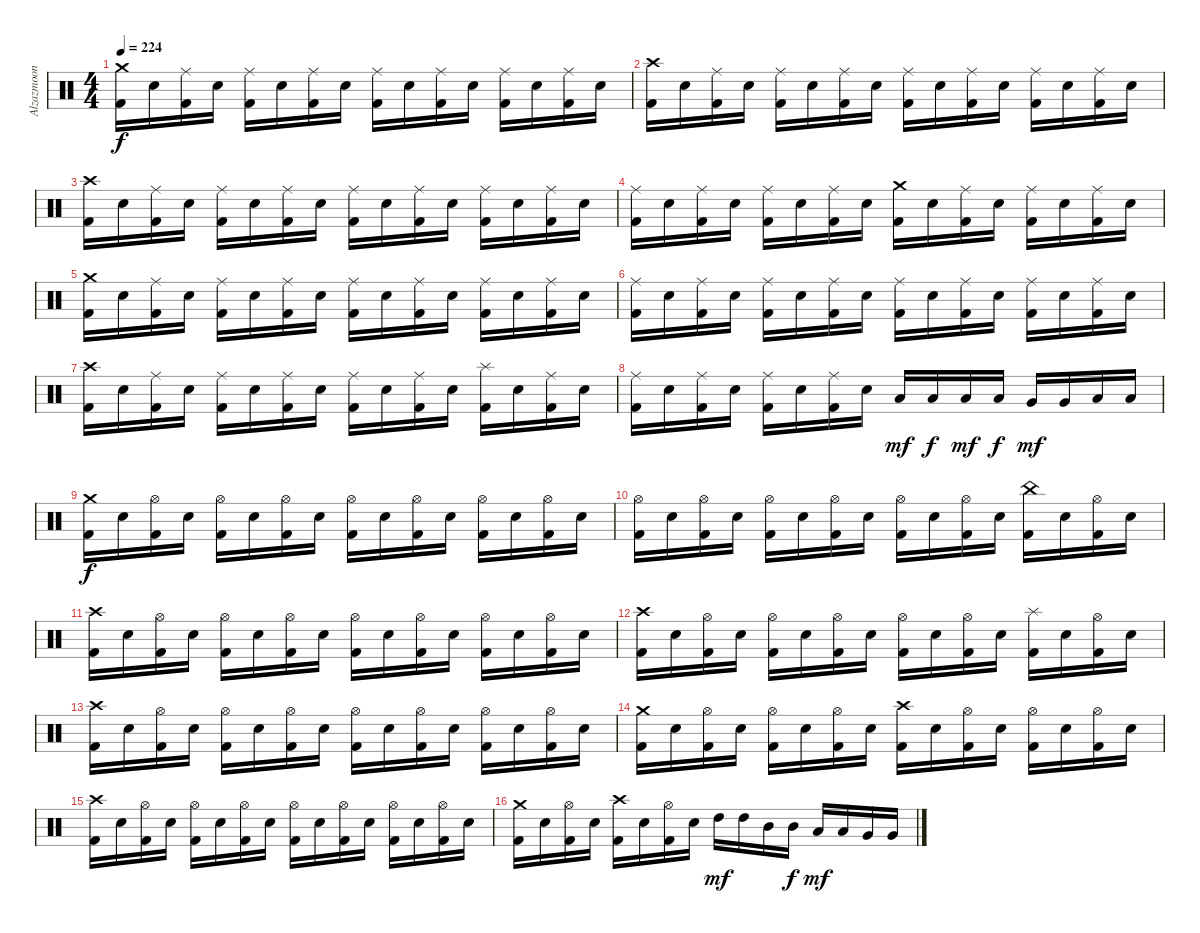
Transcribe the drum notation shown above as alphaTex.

\track ("Alzazmoon" "Alzazmoon") {instrument percussion}
\staff {score}
\articulation defaults
\ts (4 4)
\tempo 224
\clef neutral
\ks c
("Crash medium (hit)" "Kick (hit) 2").16{dy f} "Snare (hit) 2".16 ("Ride (middle)" "Kick (hit) 2").16 "Snare (hit) 2".16 ("Ride (middle)" "Kick (hit) 2").16 "Snare (hit) 2".16 ("Ride (middle)" "Kick (hit) 2").16 "Snare (hit) 2".16 ("Ride (middle)" "Kick (hit) 2").16 "Snare (hit) 2".16 ("Ride (middle)" "Kick (hit) 2").16 "Snare (hit) 2".16 ("Ride (middle)" "Kick (hit) 2").16 "Snare (hit) 2".16 ("Ride (middle)" "Kick (hit) 2").16 "Snare (hit) 2".16 |
("Crash high (hit)" "Kick (hit) 2").16 "Snare (hit) 2".16 ("Ride (middle)" "Kick (hit) 2").16 "Snare (hit) 2".16 ("Ride (middle)" "Kick (hit) 2").16 "Snare (hit) 2".16 ("Ride (middle)" "Kick (hit) 2").16 "Snare (hit) 2".16 ("Ride (middle)" "Kick (hit) 2").16 "Snare (hit) 2".16 ("Ride (middle)" "Kick (hit) 2").16 "Snare (hit) 2".16 ("Ride (middle)" "Kick (hit) 2").16 "Snare (hit) 2".16 ("Ride (middle)" "Kick (hit) 2").16 "Snare (hit) 2".16 |
("Crash high (hit)" "Kick (hit) 2").16 "Snare (hit) 2".16 ("Ride (middle)" "Kick (hit) 2").16 "Snare (hit) 2".16 ("Ride (middle)" "Kick (hit) 2").16 "Snare (hit) 2".16 ("Ride (middle)" "Kick (hit) 2").16 "Snare (hit) 2".16 ("Ride (middle)" "Kick (hit) 2").16 "Snare (hit) 2".16 ("Ride (middle)" "Kick (hit) 2").16 "Snare (hit) 2".16 ("Ride (middle)" "Kick (hit) 2").16 "Snare (hit) 2".16 ("Ride (middle)" "Kick (hit) 2").16 "Snare (hit) 2".16 |
("Ride (middle)" "Kick (hit) 2").16 "Snare (hit) 2".16 ("Ride (middle)" "Kick (hit) 2").16 "Snare (hit) 2".16 ("Ride (middle)" "Kick (hit) 2").16 "Snare (hit) 2".16 ("Ride (middle)" "Kick (hit) 2").16 "Snare (hit) 2".16 ("Crash medium (hit)" "Kick (hit) 2").16 "Snare (hit) 2".16 ("Ride (middle)" "Kick (hit) 2").16 "Snare (hit) 2".16 ("Ride (middle)" "Kick (hit) 2").16 "Snare (hit) 2".16 ("Ride (middle)" "Kick (hit) 2").16 "Snare (hit) 2".16 |
("Crash medium (hit)" "Kick (hit) 2").16 "Snare (hit) 2".16 ("Ride (middle)" "Kick (hit) 2").16 "Snare (hit) 2".16 ("Ride (middle)" "Kick (hit) 2").16 "Snare (hit) 2".16 ("Ride (middle)" "Kick (hit) 2").16 "Snare (hit) 2".16 ("Ride (middle)" "Kick (hit) 2").16 "Snare (hit) 2".16 ("Ride (middle)" "Kick (hit) 2").16 "Snare (hit) 2".16 ("Ride (middle)" "Kick (hit) 2").16 "Snare (hit) 2".16 ("Ride (middle)" "Kick (hit) 2").16 "Snare (hit) 2".16 |
("Ride (middle)" "Kick (hit) 2").16 "Snare (hit) 2".16 ("Ride (middle)" "Kick (hit) 2").16 "Snare (hit) 2".16 ("Ride (middle)" "Kick (hit) 2").16 "Snare (hit) 2".16 ("Ride (middle)" "Kick (hit) 2").16 "Snare (hit) 2".16 ("Ride (middle)" "Kick (hit) 2").16 "Snare (hit) 2".16 ("Ride (middle)" "Kick (hit) 2").16 "Snare (hit) 2".16 ("Ride (middle)" "Kick (hit) 2").16 "Snare (hit) 2".16 ("Ride (middle)" "Kick (hit) 2").16 "Snare (hit) 2".16 |
("Crash high (hit)" "Kick (hit) 2").16 "Snare (hit) 2".16 ("Ride (middle)" "Kick (hit) 2").16 "Snare (hit) 2".16 ("Ride (middle)" "Kick (hit) 2").16 "Snare (hit) 2".16 ("Ride (middle)" "Kick (hit) 2").16 "Snare (hit) 2".16 ("Ride (middle)" "Kick (hit) 2").16 "Snare (hit) 2".16 ("Ride (middle)" "Kick (hit) 2").16 "Snare (hit) 2".16 ("Splash (hit)" "Kick (hit) 2").16 "Snare (hit) 2".16 ("Ride (middle)" "Kick (hit) 2").16 "Snare (hit) 2".16 |
("Ride (middle)" "Kick (hit) 2").16 "Snare (hit) 2".16 ("Ride (middle)" "Kick (hit) 2").16 "Snare (hit) 2".16 ("Ride (middle)" "Kick (hit) 2").16 "Snare (hit) 2".16 ("Ride (middle)" "Kick (hit) 2").16 "Snare (hit) 2".16 "Low Tom (hit)".16{dy mf} "Low Tom (hit)".16{dy f} "Low Tom (hit)".16{dy mf} "Low Tom (hit)".16{dy f} "Very Low Tom (hit)".16{dy mf} "Very Low Tom (hit)".16 "Low Floor Tom (hit)".16 "Low Floor Tom (hit)".16 |
("Crash medium (hit)" "Kick (hit) 2").16{dy f} "Snare (hit) 2".16 ("Hi-Hat (open)" "Kick (hit) 2").16 "Snare (hit) 2".16 ("Hi-Hat (open)" "Kick (hit) 2").16 "Snare (hit) 2".16 ("Hi-Hat (open)" "Kick (hit) 2").16 "Snare (hit) 2".16 ("Hi-Hat (open)" "Kick (hit) 2").16 "Snare (hit) 2".16 ("Hi-Hat (open)" "Kick (hit) 2").16 "Snare (hit) 2".16 ("Hi-Hat (open)" "Kick (hit) 2").16 "Snare (hit) 2".16 ("Hi-Hat (open)" "Kick (hit) 2").16 "Snare (hit) 2".16 |
("Hi-Hat (open)" "Kick (hit) 2").16 "Snare (hit) 2".16 ("Hi-Hat (open)" "Kick (hit) 2").16 "Snare (hit) 2".16 ("Hi-Hat (open)" "Kick (hit) 2").16 "Snare (hit) 2".16 ("Hi-Hat (open)" "Kick (hit) 2").16 "Snare (hit) 2".16 ("Hi-Hat (open)" "Kick (hit) 2").16 "Snare (hit) 2".16 ("Hi-Hat (open)" "Kick (hit) 2").16 "Snare (hit) 2".16 ("China (hit)" "Kick (hit) 2").16 "Snare (hit) 2".16 ("Hi-Hat (open)" "Kick (hit) 2").16 "Snare (hit) 2".16 |
("Crash high (hit)" "Kick (hit) 2").16 "Snare (hit) 2".16 ("Hi-Hat (open)" "Kick (hit) 2").16 "Snare (hit) 2".16 ("Hi-Hat (open)" "Kick (hit) 2").16 "Snare (hit) 2".16 ("Hi-Hat (open)" "Kick (hit) 2").16 "Snare (hit) 2".16 ("Hi-Hat (open)" "Kick (hit) 2").16 "Snare (hit) 2".16 ("Hi-Hat (open)" "Kick (hit) 2").16 "Snare (hit) 2".16 ("Hi-Hat (open)" "Kick (hit) 2").16 "Snare (hit) 2".16 ("Hi-Hat (open)" "Kick (hit) 2").16 "Snare (hit) 2".16 |
("Crash high (hit)" "Kick (hit) 2").16 "Snare (hit) 2".16 ("Hi-Hat (open)" "Kick (hit) 2").16 "Snare (hit) 2".16 ("Hi-Hat (open)" "Kick (hit) 2").16 "Snare (hit) 2".16 ("Hi-Hat (open)" "Kick (hit) 2").16 "Snare (hit) 2".16 ("Hi-Hat (open)" "Kick (hit) 2").16 "Snare (hit) 2".16 ("Hi-Hat (open)" "Kick (hit) 2").16 "Snare (hit) 2".16 ("Splash (hit)" "Kick (hit) 2").16 "Snare (hit) 2".16 ("Hi-Hat (open)" "Kick (hit) 2").16 "Snare (hit) 2".16 |
("Crash high (hit)" "Kick (hit) 2").16 "Snare (hit) 2".16 ("Hi-Hat (open)" "Kick (hit) 2").16 "Snare (hit) 2".16 ("Hi-Hat (open)" "Kick (hit) 2").16 "Snare (hit) 2".16 ("Hi-Hat (open)" "Kick (hit) 2").16 "Snare (hit) 2".16 ("Hi-Hat (open)" "Kick (hit) 2").16 "Snare (hit) 2".16 ("Hi-Hat (open)" "Kick (hit) 2").16 "Snare (hit) 2".16 ("Hi-Hat (open)" "Kick (hit) 2").16 "Snare (hit) 2".16 ("Hi-Hat (open)" "Kick (hit) 2").16 "Snare (hit) 2".16 |
("Crash medium (hit)" "Kick (hit) 2").16 "Snare (hit) 2".16 ("Hi-Hat (open)" "Kick (hit) 2").16 "Snare (hit) 2".16 ("Hi-Hat (open)" "Kick (hit) 2").16 "Snare (hit) 2".16 ("Hi-Hat (open)" "Kick (hit) 2").16 "Snare (hit) 2".16 ("Crash high (hit)" "Kick (hit) 2").16 "Snare (hit) 2".16 ("Hi-Hat (open)" "Kick (hit) 2").16 "Snare (hit) 2".16 ("Hi-Hat (open)" "Kick (hit) 2").16 "Snare (hit) 2".16 ("Hi-Hat (open)" "Kick (hit) 2").16 "Snare (hit) 2".16 |
("Crash high (hit)" "Kick (hit) 2").16 "Snare (hit) 2".16 ("Hi-Hat (open)" "Kick (hit) 2").16 "Snare (hit) 2".16 ("Hi-Hat (open)" "Kick (hit) 2").16 "Snare (hit) 2".16 ("Hi-Hat (open)" "Kick (hit) 2").16 "Snare (hit) 2".16 ("Hi-Hat (open)" "Kick (hit) 2").16 "Snare (hit) 2".16 ("Hi-Hat (open)" "Kick (hit) 2").16 "Snare (hit) 2".16 ("Hi-Hat (open)" "Kick (hit) 2").16 "Snare (hit) 2".16 ("Hi-Hat (open)" "Kick (hit) 2").16 "Snare (hit) 2".16 |
("Crash medium (hit)" "Kick (hit) 2").16 "Snare (hit) 2".16 ("Hi-Hat (open)" "Kick (hit) 2").16 "Snare (hit) 2".16 ("Crash high (hit)" "Kick (hit) 2").16 "Snare (hit) 2".16 ("Hi-Hat (open)" "Kick (hit) 2").16 "Snare (hit) 2".16 "High Tom (hit)".16{dy mf} "High Tom (hit)".16 "Mid Tom (hit)".16 "Mid Tom (hit)".16{dy f} "Low Tom (hit)".16{dy mf} "Low Tom (hit)".16 "Very Low Tom (hit)".16 "Very Low Tom (hit)".16
